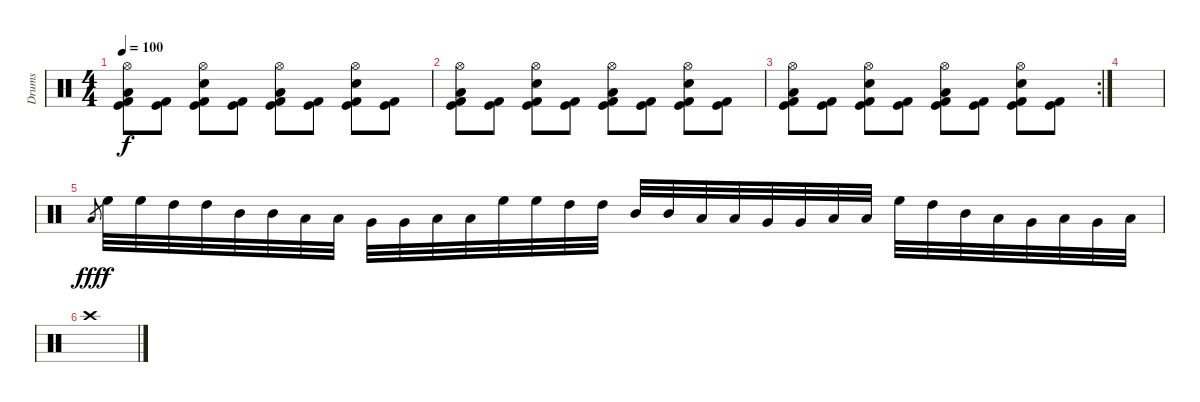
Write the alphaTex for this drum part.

\track ("Drums" "Drums") {instrument percussion}
\staff {score}
\articulation defaults
\ts (4 4)
\tempo 100
\clef neutral
\ks c
("Hi-Hat (open)" "Low Floor Tom (hit)" "Kick (hit)" "Kick (hit) 2").8{dy f} ("Kick (hit)" "Kick (hit) 2").8 ("Hi-Hat (open)" "Electric Snare (hit)" "Kick (hit)" "Kick (hit) 2").8 ("Kick (hit)" "Kick (hit) 2").8 ("Hi-Hat (open)" "Low Floor Tom (hit)" "Kick (hit)" "Kick (hit) 2").8 ("Kick (hit)" "Kick (hit) 2").8 ("Hi-Hat (open)" "Electric Snare (hit)" "Kick (hit)" "Kick (hit) 2").8 ("Kick (hit)" "Kick (hit) 2").8 |
("Hi-Hat (open)" "Low Floor Tom (hit)" "Kick (hit)" "Kick (hit) 2").8 ("Kick (hit)" "Kick (hit) 2").8 ("Hi-Hat (open)" "Electric Snare (hit)" "Kick (hit)" "Kick (hit) 2").8 ("Kick (hit)" "Kick (hit) 2").8 ("Hi-Hat (open)" "Low Floor Tom (hit)" "Kick (hit)" "Kick (hit) 2").8 ("Kick (hit)" "Kick (hit) 2").8 ("Hi-Hat (open)" "Electric Snare (hit)" "Kick (hit)" "Kick (hit) 2").8 ("Kick (hit)" "Kick (hit) 2").8 |
\rc 2
("Hi-Hat (open)" "Low Floor Tom (hit)" "Kick (hit)" "Kick (hit) 2").8 ("Kick (hit)" "Kick (hit) 2").8 ("Hi-Hat (open)" "Electric Snare (hit)" "Kick (hit)" "Kick (hit) 2").8 ("Kick (hit)" "Kick (hit) 2").8 ("Hi-Hat (open)" "Low Floor Tom (hit)" "Kick (hit)" "Kick (hit) 2").8 ("Kick (hit)" "Kick (hit) 2").8 ("Hi-Hat (open)" "Electric Snare (hit)" "Kick (hit)" "Kick (hit) 2").8 ("Kick (hit)" "Kick (hit) 2").8 |
|
"Low Tom (hit)"{sl}.8{gr dy fff} "High Floor Tom (hit)".32{dy f} "High Floor Tom (hit)".32 "High Tom (hit)".32 "High Tom (hit)".32 "Mid Tom (hit)".32 "Mid Tom (hit)".32 "Low Tom (hit)".32 "Low Tom (hit)".32 "Very Low Tom (hit)".32 "Very Low Tom (hit)".32 "Low Floor Tom (hit)".32 "Low Floor Tom (hit)".32 "High Floor Tom (hit)".32 "High Floor Tom (hit)".32 "High Tom (hit)".32 "High Tom (hit)".32 "Mid Tom (hit)".32 "Mid Tom (hit)".32 "Low Tom (hit)".32 "Low Tom (hit)".32 "Very Low Tom (hit)".32 "Very Low Tom (hit)".32 "Low Floor Tom (hit)".32 "Low Floor Tom (hit)".32 "High Floor Tom (hit)".32 "High Tom (hit)".32 "Mid Tom (hit)".32 "Low Tom (hit)".32 "Very Low Tom (hit)".32 "Low Floor Tom (hit)".32 "Very Low Tom (hit)".32 "Low Floor Tom (hit)".32 |
"Crash high (hit)".1
